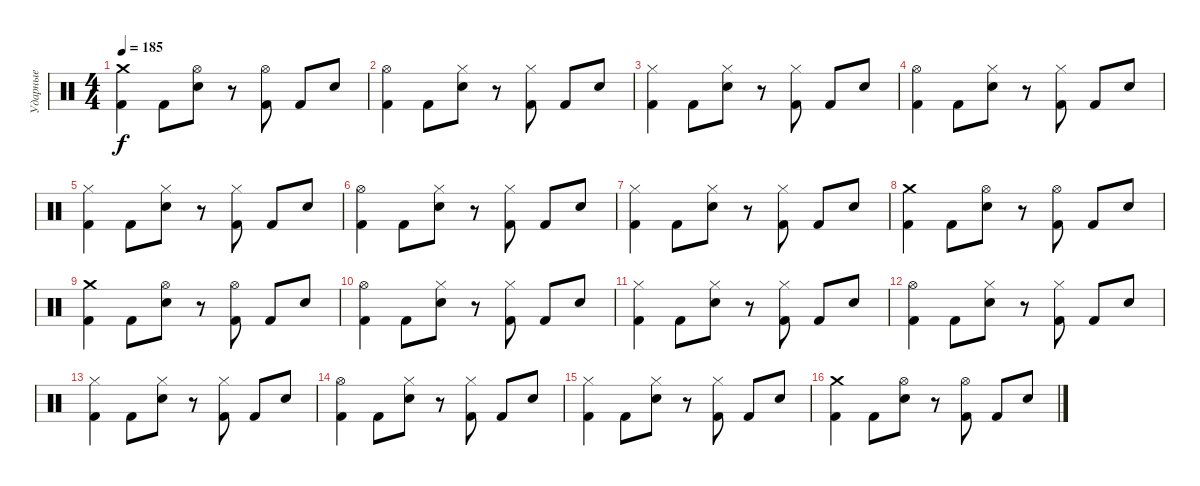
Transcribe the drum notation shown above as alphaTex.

\track ("Ударные" "Ударные") {instrument percussion}
\staff {score}
\articulation defaults
\ts (4 4)
\tempo 185
\clef neutral
\ks c
("Crash medium (hit)" "Kick (hit) 2").4{dy f} "Kick (hit) 2".8 ("Hi-Hat (open)" "Electric Snare (hit)").8 r.8 ("Hi-Hat (open)" "Kick (hit) 2").8 "Kick (hit) 2".8 "Electric Snare (hit)".8 |
("Hi-Hat (open)" "Kick (hit) 2").4 "Kick (hit) 2".8 ("Hi-Hat (closed)" "Electric Snare (hit)").8 r.8 ("Hi-Hat (closed)" "Kick (hit) 2").8 "Kick (hit) 2".8 "Electric Snare (hit)".8 |
("Hi-Hat (closed)" "Kick (hit) 2").4 "Kick (hit) 2".8 ("Hi-Hat (closed)" "Electric Snare (hit)").8 r.8 ("Hi-Hat (closed)" "Kick (hit) 2").8 "Kick (hit) 2".8 "Electric Snare (hit)".8 |
("Hi-Hat (open)" "Kick (hit) 2").4 "Kick (hit) 2".8 ("Hi-Hat (closed)" "Electric Snare (hit)").8 r.8 ("Hi-Hat (closed)" "Kick (hit) 2").8 "Kick (hit) 2".8 "Electric Snare (hit)".8 |
("Hi-Hat (closed)" "Kick (hit) 2").4 "Kick (hit) 2".8 ("Hi-Hat (closed)" "Electric Snare (hit)").8 r.8 ("Hi-Hat (closed)" "Kick (hit) 2").8 "Kick (hit) 2".8 "Electric Snare (hit)".8 |
("Hi-Hat (open)" "Kick (hit) 2").4 "Kick (hit) 2".8 ("Hi-Hat (closed)" "Electric Snare (hit)").8 r.8 ("Hi-Hat (closed)" "Kick (hit) 2").8 "Kick (hit) 2".8 "Electric Snare (hit)".8 |
("Hi-Hat (closed)" "Kick (hit) 2").4 "Kick (hit) 2".8 ("Hi-Hat (closed)" "Electric Snare (hit)").8 r.8 ("Hi-Hat (closed)" "Kick (hit) 2").8 "Kick (hit) 2".8 "Electric Snare (hit)".8 |
("Crash medium (hit)" "Kick (hit) 2").4 "Kick (hit) 2".8 ("Hi-Hat (open)" "Electric Snare (hit)").8 r.8 ("Hi-Hat (open)" "Kick (hit) 2").8 "Kick (hit) 2".8 "Electric Snare (hit)".8 |
("Crash medium (hit)" "Kick (hit) 2").4 "Kick (hit) 2".8 ("Hi-Hat (open)" "Electric Snare (hit)").8 r.8 ("Hi-Hat (open)" "Kick (hit) 2").8 "Kick (hit) 2".8 "Electric Snare (hit)".8 |
("Hi-Hat (open)" "Kick (hit) 2").4 "Kick (hit) 2".8 ("Hi-Hat (closed)" "Electric Snare (hit)").8 r.8 ("Hi-Hat (closed)" "Kick (hit) 2").8 "Kick (hit) 2".8 "Electric Snare (hit)".8 |
("Hi-Hat (closed)" "Kick (hit) 2").4 "Kick (hit) 2".8 ("Hi-Hat (closed)" "Electric Snare (hit)").8 r.8 ("Hi-Hat (closed)" "Kick (hit) 2").8 "Kick (hit) 2".8 "Electric Snare (hit)".8 |
("Hi-Hat (open)" "Kick (hit) 2").4 "Kick (hit) 2".8 ("Hi-Hat (closed)" "Electric Snare (hit)").8 r.8 ("Hi-Hat (closed)" "Kick (hit) 2").8 "Kick (hit) 2".8 "Electric Snare (hit)".8 |
("Hi-Hat (closed)" "Kick (hit) 2").4 "Kick (hit) 2".8 ("Hi-Hat (closed)" "Electric Snare (hit)").8 r.8 ("Hi-Hat (closed)" "Kick (hit) 2").8 "Kick (hit) 2".8 "Electric Snare (hit)".8 |
("Hi-Hat (open)" "Kick (hit) 2").4 "Kick (hit) 2".8 ("Hi-Hat (closed)" "Electric Snare (hit)").8 r.8 ("Hi-Hat (closed)" "Kick (hit) 2").8 "Kick (hit) 2".8 "Electric Snare (hit)".8 |
("Hi-Hat (closed)" "Kick (hit) 2").4 "Kick (hit) 2".8 ("Hi-Hat (closed)" "Electric Snare (hit)").8 r.8 ("Hi-Hat (closed)" "Kick (hit) 2").8 "Kick (hit) 2".8 "Electric Snare (hit)".8 |
("Crash medium (hit)" "Kick (hit) 2").4 "Kick (hit) 2".8 ("Hi-Hat (open)" "Electric Snare (hit)").8 r.8 ("Hi-Hat (open)" "Kick (hit) 2").8 "Kick (hit) 2".8 "Electric Snare (hit)".8
